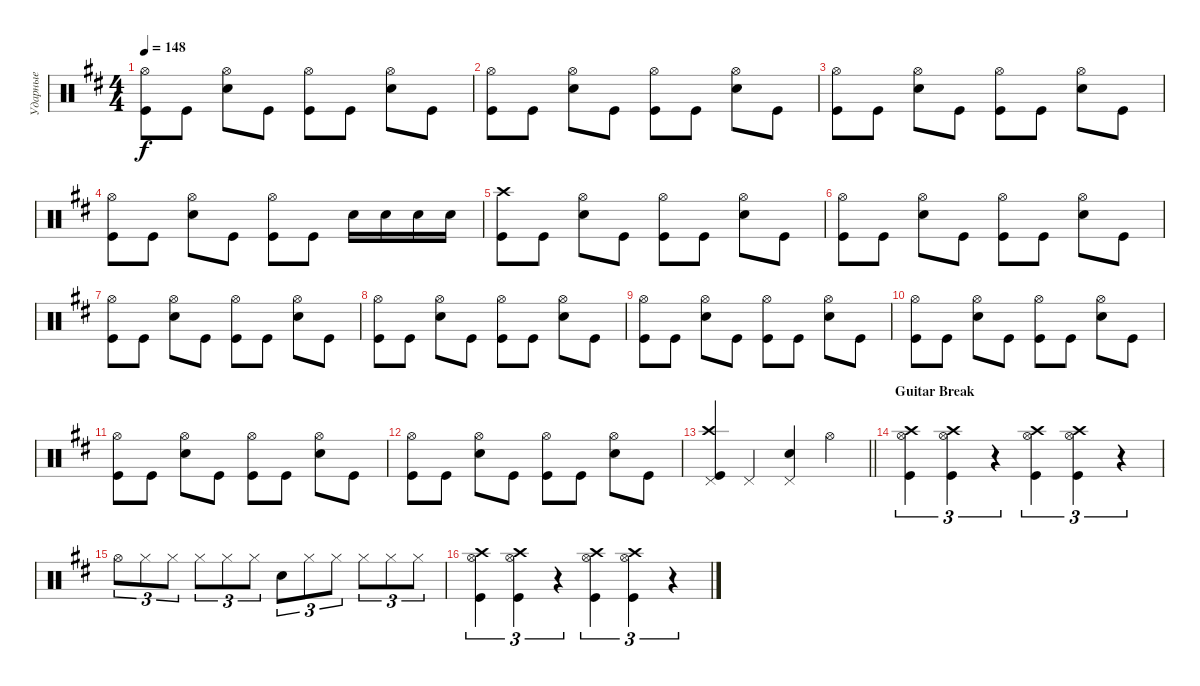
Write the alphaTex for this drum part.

\track ("Ударные" "Ударные") {instrument percussion}
\staff {score}
\articulation defaults
\ts (4 4)
\tempo 148
\clef neutral
\ks bminor
("Hi-Hat (open)" "Kick (hit)").8{dy f} "Kick (hit)".8 ("Snare (hit) 2" "Hi-Hat (open)").8 "Kick (hit)".8 ("Kick (hit)" "Hi-Hat (open)").8 "Kick (hit)".8 ("Snare (hit) 2" "Hi-Hat (open)").8 "Kick (hit)".8 |
("Hi-Hat (open)" "Kick (hit)").8 "Kick (hit)".8 ("Snare (hit) 2" "Hi-Hat (open)").8 "Kick (hit)".8 ("Kick (hit)" "Hi-Hat (open)").8 "Kick (hit)".8 ("Snare (hit) 2" "Hi-Hat (open)").8 "Kick (hit)".8 |
("Hi-Hat (open)" "Kick (hit)").8 "Kick (hit)".8 ("Snare (hit) 2" "Hi-Hat (open)").8 "Kick (hit)".8 ("Kick (hit)" "Hi-Hat (open)").8 "Kick (hit)".8 ("Snare (hit) 2" "Hi-Hat (open)").8 "Kick (hit)".8 |
("Hi-Hat (open)" "Kick (hit)").8 "Kick (hit)".8 ("Snare (hit) 2" "Hi-Hat (open)").8 "Kick (hit)".8 ("Kick (hit)" "Hi-Hat (open)").8 "Kick (hit)".8 "Snare (hit) 2".16 "Snare (hit) 2".16 "Snare (hit) 2".16 "Snare (hit) 2".16 |
("Crash high (hit)" "Kick (hit)").8 "Kick (hit)".8 ("Snare (hit) 2" "Hi-Hat (open)").8 "Kick (hit)".8 ("Kick (hit)" "Hi-Hat (open)").8 "Kick (hit)".8 ("Snare (hit) 2" "Hi-Hat (open)").8 "Kick (hit)".8 |
("Hi-Hat (open)" "Kick (hit)").8 "Kick (hit)".8 ("Snare (hit) 2" "Hi-Hat (open)").8 "Kick (hit)".8 ("Kick (hit)" "Hi-Hat (open)").8 "Kick (hit)".8 ("Snare (hit) 2" "Hi-Hat (open)").8 "Kick (hit)".8 |
("Hi-Hat (open)" "Kick (hit)").8 "Kick (hit)".8 ("Snare (hit) 2" "Hi-Hat (open)").8 "Kick (hit)".8 ("Kick (hit)" "Hi-Hat (open)").8 "Kick (hit)".8 ("Snare (hit) 2" "Hi-Hat (open)").8 "Kick (hit)".8 |
("Hi-Hat (open)" "Kick (hit)").8 "Kick (hit)".8 ("Snare (hit) 2" "Hi-Hat (open)").8 "Kick (hit)".8 ("Kick (hit)" "Hi-Hat (open)").8 "Kick (hit)".8 ("Snare (hit) 2" "Hi-Hat (open)").8 "Kick (hit)".8 |
("Hi-Hat (open)" "Kick (hit)").8 "Kick (hit)".8 ("Snare (hit) 2" "Hi-Hat (open)").8 "Kick (hit)".8 ("Kick (hit)" "Hi-Hat (open)").8 "Kick (hit)".8 ("Snare (hit) 2" "Hi-Hat (open)").8 "Kick (hit)".8 |
("Hi-Hat (open)" "Kick (hit)").8 "Kick (hit)".8 ("Snare (hit) 2" "Hi-Hat (open)").8 "Kick (hit)".8 ("Kick (hit)" "Hi-Hat (open)").8 "Kick (hit)".8 ("Snare (hit) 2" "Hi-Hat (open)").8 "Kick (hit)".8 |
("Hi-Hat (open)" "Kick (hit)").8 "Kick (hit)".8 ("Snare (hit) 2" "Hi-Hat (open)").8 "Kick (hit)".8 ("Kick (hit)" "Hi-Hat (open)").8 "Kick (hit)".8 ("Snare (hit) 2" "Hi-Hat (open)").8 "Kick (hit)".8 |
("Hi-Hat (open)" "Kick (hit)").8 "Kick (hit)".8 ("Snare (hit) 2" "Hi-Hat (open)").8 "Kick (hit)".8 ("Kick (hit)" "Hi-Hat (open)").8 "Kick (hit)".8 ("Snare (hit) 2" "Hi-Hat (open)").8 "Kick (hit)".8 |
\barLineRight lightlight
("Kick (hit)" "Crash high (hit)" "Pedal Hi-Hat (hit)").4 "Pedal Hi-Hat (hit)".4 ("Snare (hit) 2" "Pedal Hi-Hat (hit)").4 "Hi-Hat (open)".4 |
\section ("" "Guitar Break")
("Kick (hit)" "Crash high (hit)" "Hi-Hat (open)").4{tu (3 2)} ("Kick (hit)" "Crash high (hit)" "Hi-Hat (open)").4{tu (3 2)} r.4{tu (3 2)} ("Kick (hit)" "Crash high (hit)" "Hi-Hat (open)").4{tu (3 2)} ("Kick (hit)" "Crash high (hit)" "Hi-Hat (open)").4{tu (3 2)} r.4{tu (3 2)} |
"Hi-Hat (open)".8{tu (3 2)} "Hi-Hat (closed)".8{tu (3 2)} "Hi-Hat (closed)".8{tu (3 2)} "Hi-Hat (closed)".8{tu (3 2)} "Hi-Hat (closed)".8{tu (3 2)} "Hi-Hat (closed)".8{tu (3 2)} "Snare (hit) 2".8{tu (3 2)} "Hi-Hat (closed)".8{tu (3 2)} "Hi-Hat (closed)".8{tu (3 2)} "Hi-Hat (closed)".8{tu (3 2)} "Hi-Hat (closed)".8{tu (3 2)} "Hi-Hat (closed)".8{tu (3 2)} |
("Kick (hit)" "Crash high (hit)" "Hi-Hat (open)").4{tu (3 2)} ("Kick (hit)" "Crash high (hit)" "Hi-Hat (open)").4{tu (3 2)} r.4{tu (3 2)} ("Kick (hit)" "Crash high (hit)" "Hi-Hat (open)").4{tu (3 2)} ("Kick (hit)" "Crash high (hit)" "Hi-Hat (open)").4{tu (3 2)} r.4{tu (3 2)}
